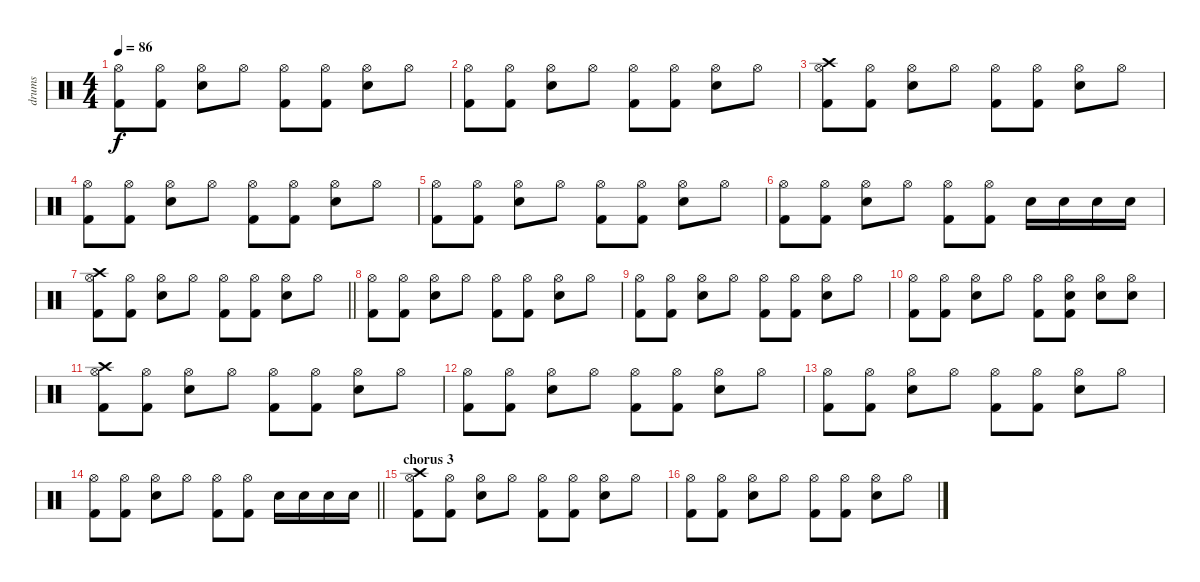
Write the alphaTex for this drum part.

\track ("drums" "drums") {instrument percussion}
\staff {score}
\articulation defaults
\ts (4 4)
\tempo 86
\clef neutral
\ks c
("Kick (hit) 2" "Hi-Hat (open)").8{dy f} ("Kick (hit) 2" "Hi-Hat (open)").8 ("Electric Snare (hit)" "Hi-Hat (open)").8 "Hi-Hat (open)".8 ("Kick (hit) 2" "Hi-Hat (open)").8 ("Kick (hit) 2" "Hi-Hat (open)").8 ("Electric Snare (hit)" "Hi-Hat (open)").8 "Hi-Hat (open)".8 |
("Kick (hit) 2" "Hi-Hat (open)").8 ("Kick (hit) 2" "Hi-Hat (open)").8 ("Electric Snare (hit)" "Hi-Hat (open)").8 "Hi-Hat (open)".8 ("Kick (hit) 2" "Hi-Hat (open)").8 ("Kick (hit) 2" "Hi-Hat (open)").8 ("Electric Snare (hit)" "Hi-Hat (open)").8 "Hi-Hat (open)".8 |
("Kick (hit) 2" "Hi-Hat (open)" "Crash high (hit)").8 ("Kick (hit) 2" "Hi-Hat (open)").8 ("Electric Snare (hit)" "Hi-Hat (open)").8 "Hi-Hat (open)".8 ("Kick (hit) 2" "Hi-Hat (open)").8 ("Kick (hit) 2" "Hi-Hat (open)").8 ("Electric Snare (hit)" "Hi-Hat (open)").8 "Hi-Hat (open)".8 |
("Kick (hit) 2" "Hi-Hat (open)").8 ("Kick (hit) 2" "Hi-Hat (open)").8 ("Electric Snare (hit)" "Hi-Hat (open)").8 "Hi-Hat (open)".8 ("Kick (hit) 2" "Hi-Hat (open)").8 ("Kick (hit) 2" "Hi-Hat (open)").8 ("Electric Snare (hit)" "Hi-Hat (open)").8 "Hi-Hat (open)".8 |
("Kick (hit) 2" "Hi-Hat (open)").8 ("Kick (hit) 2" "Hi-Hat (open)").8 ("Electric Snare (hit)" "Hi-Hat (open)").8 "Hi-Hat (open)".8 ("Kick (hit) 2" "Hi-Hat (open)").8 ("Kick (hit) 2" "Hi-Hat (open)").8 ("Electric Snare (hit)" "Hi-Hat (open)").8 "Hi-Hat (open)".8 |
("Kick (hit) 2" "Hi-Hat (open)").8 ("Kick (hit) 2" "Hi-Hat (open)").8 ("Electric Snare (hit)" "Hi-Hat (open)").8 "Hi-Hat (open)".8 ("Kick (hit) 2" "Hi-Hat (open)").8 ("Kick (hit) 2" "Hi-Hat (open)").8 "Electric Snare (hit)".16 "Electric Snare (hit)".16 "Electric Snare (hit)".16 "Electric Snare (hit)".16 |
\barLineRight lightlight
("Kick (hit) 2" "Hi-Hat (open)" "Crash high (hit)").8 ("Kick (hit) 2" "Hi-Hat (open)").8 ("Electric Snare (hit)" "Hi-Hat (open)").8 "Hi-Hat (open)".8 ("Kick (hit) 2" "Hi-Hat (open)").8 ("Kick (hit) 2" "Hi-Hat (open)").8 ("Electric Snare (hit)" "Hi-Hat (open)").8 "Hi-Hat (open)".8 |
("Kick (hit) 2" "Hi-Hat (open)").8 ("Kick (hit) 2" "Hi-Hat (open)").8 ("Electric Snare (hit)" "Hi-Hat (open)").8 "Hi-Hat (open)".8 ("Kick (hit) 2" "Hi-Hat (open)").8 ("Kick (hit) 2" "Hi-Hat (open)").8 ("Electric Snare (hit)" "Hi-Hat (open)").8 "Hi-Hat (open)".8 |
("Kick (hit) 2" "Hi-Hat (open)").8 ("Kick (hit) 2" "Hi-Hat (open)").8 ("Electric Snare (hit)" "Hi-Hat (open)").8 "Hi-Hat (open)".8 ("Kick (hit) 2" "Hi-Hat (open)").8 ("Kick (hit) 2" "Hi-Hat (open)").8 ("Electric Snare (hit)" "Hi-Hat (open)").8 "Hi-Hat (open)".8 |
("Kick (hit) 2" "Hi-Hat (open)").8 ("Kick (hit) 2" "Hi-Hat (open)").8 ("Electric Snare (hit)" "Hi-Hat (open)").8 "Hi-Hat (open)".8 ("Kick (hit) 2" "Hi-Hat (open)").8 ("Kick (hit) 2" "Electric Snare (hit)" "Hi-Hat (open)").8 ("Electric Snare (hit)" "Hi-Hat (open)").8 ("Electric Snare (hit)" "Hi-Hat (open)").8 |
("Kick (hit) 2" "Hi-Hat (open)" "Crash high (hit)").8 ("Kick (hit) 2" "Hi-Hat (open)").8 ("Electric Snare (hit)" "Hi-Hat (open)").8 "Hi-Hat (open)".8 ("Kick (hit) 2" "Hi-Hat (open)").8 ("Kick (hit) 2" "Hi-Hat (open)").8 ("Electric Snare (hit)" "Hi-Hat (open)").8 "Hi-Hat (open)".8 |
("Kick (hit) 2" "Hi-Hat (open)").8 ("Kick (hit) 2" "Hi-Hat (open)").8 ("Electric Snare (hit)" "Hi-Hat (open)").8 "Hi-Hat (open)".8 ("Kick (hit) 2" "Hi-Hat (open)").8 ("Kick (hit) 2" "Hi-Hat (open)").8 ("Electric Snare (hit)" "Hi-Hat (open)").8 "Hi-Hat (open)".8 |
("Kick (hit) 2" "Hi-Hat (open)").8 ("Kick (hit) 2" "Hi-Hat (open)").8 ("Electric Snare (hit)" "Hi-Hat (open)").8 "Hi-Hat (open)".8 ("Kick (hit) 2" "Hi-Hat (open)").8 ("Kick (hit) 2" "Hi-Hat (open)").8 ("Electric Snare (hit)" "Hi-Hat (open)").8 "Hi-Hat (open)".8 |
\barLineRight lightlight
("Kick (hit) 2" "Hi-Hat (open)").8 ("Kick (hit) 2" "Hi-Hat (open)").8 ("Electric Snare (hit)" "Hi-Hat (open)").8 "Hi-Hat (open)".8 ("Kick (hit) 2" "Hi-Hat (open)").8 ("Kick (hit) 2" "Hi-Hat (open)").8 "Electric Snare (hit)".16 "Electric Snare (hit)".16 "Electric Snare (hit)".16 "Electric Snare (hit)".16 |
\section ("" "chorus 3")
("Kick (hit) 2" "Hi-Hat (open)" "Crash high (hit)").8 ("Kick (hit) 2" "Hi-Hat (open)").8 ("Electric Snare (hit)" "Hi-Hat (open)").8 "Hi-Hat (open)".8 ("Kick (hit) 2" "Hi-Hat (open)").8 ("Kick (hit) 2" "Hi-Hat (open)").8 ("Electric Snare (hit)" "Hi-Hat (open)").8 "Hi-Hat (open)".8 |
("Kick (hit) 2" "Hi-Hat (open)").8 ("Kick (hit) 2" "Hi-Hat (open)").8 ("Electric Snare (hit)" "Hi-Hat (open)").8 "Hi-Hat (open)".8 ("Kick (hit) 2" "Hi-Hat (open)").8 ("Kick (hit) 2" "Hi-Hat (open)").8 ("Electric Snare (hit)" "Hi-Hat (open)").8 "Hi-Hat (open)".8
